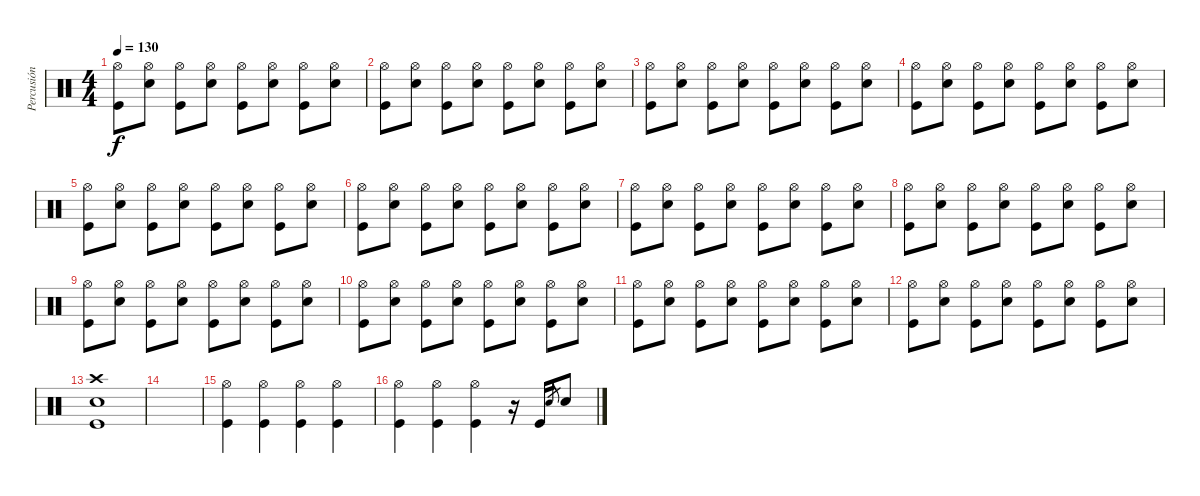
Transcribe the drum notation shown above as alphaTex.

\track ("Percusión" "Percusión") {instrument percussion}
\staff {score}
\articulation defaults
\ts (4 4)
\tempo 130
\clef neutral
\ks c
("Hi-Hat (open)" "Kick (hit)").8{dy f} ("Hi-Hat (open)" "Electric Snare (hit)").8 ("Hi-Hat (open)" "Kick (hit)").8 ("Hi-Hat (open)" "Electric Snare (hit)").8 ("Hi-Hat (open)" "Kick (hit)").8 ("Hi-Hat (open)" "Electric Snare (hit)").8 ("Hi-Hat (open)" "Kick (hit)").8 ("Hi-Hat (open)" "Electric Snare (hit)").8 |
("Hi-Hat (open)" "Kick (hit)").8 ("Hi-Hat (open)" "Electric Snare (hit)").8 ("Hi-Hat (open)" "Kick (hit)").8 ("Hi-Hat (open)" "Electric Snare (hit)").8 ("Hi-Hat (open)" "Kick (hit)").8 ("Hi-Hat (open)" "Electric Snare (hit)").8 ("Hi-Hat (open)" "Kick (hit)").8 ("Hi-Hat (open)" "Electric Snare (hit)").8 |
("Hi-Hat (open)" "Kick (hit)").8 ("Hi-Hat (open)" "Electric Snare (hit)").8 ("Hi-Hat (open)" "Kick (hit)").8 ("Hi-Hat (open)" "Electric Snare (hit)").8 ("Hi-Hat (open)" "Kick (hit)").8 ("Hi-Hat (open)" "Electric Snare (hit)").8 ("Hi-Hat (open)" "Kick (hit)").8 ("Hi-Hat (open)" "Electric Snare (hit)").8 |
("Hi-Hat (open)" "Kick (hit)").8 ("Hi-Hat (open)" "Electric Snare (hit)").8 ("Hi-Hat (open)" "Kick (hit)").8 ("Hi-Hat (open)" "Electric Snare (hit)").8 ("Hi-Hat (open)" "Kick (hit)").8 ("Hi-Hat (open)" "Electric Snare (hit)").8 ("Hi-Hat (open)" "Kick (hit)").8 ("Hi-Hat (open)" "Electric Snare (hit)").8 |
("Hi-Hat (open)" "Kick (hit)").8 ("Hi-Hat (open)" "Electric Snare (hit)").8 ("Hi-Hat (open)" "Kick (hit)").8 ("Hi-Hat (open)" "Electric Snare (hit)").8 ("Hi-Hat (open)" "Kick (hit)").8 ("Hi-Hat (open)" "Electric Snare (hit)").8 ("Hi-Hat (open)" "Kick (hit)").8 ("Hi-Hat (open)" "Electric Snare (hit)").8 |
("Hi-Hat (open)" "Kick (hit)").8 ("Hi-Hat (open)" "Electric Snare (hit)").8 ("Hi-Hat (open)" "Kick (hit)").8 ("Hi-Hat (open)" "Electric Snare (hit)").8 ("Hi-Hat (open)" "Kick (hit)").8 ("Hi-Hat (open)" "Electric Snare (hit)").8 ("Hi-Hat (open)" "Kick (hit)").8 ("Hi-Hat (open)" "Electric Snare (hit)").8 |
("Hi-Hat (open)" "Kick (hit)").8 ("Hi-Hat (open)" "Electric Snare (hit)").8 ("Hi-Hat (open)" "Kick (hit)").8 ("Hi-Hat (open)" "Electric Snare (hit)").8 ("Hi-Hat (open)" "Kick (hit)").8 ("Hi-Hat (open)" "Electric Snare (hit)").8 ("Hi-Hat (open)" "Kick (hit)").8 ("Hi-Hat (open)" "Electric Snare (hit)").8 |
("Hi-Hat (open)" "Kick (hit)").8 ("Hi-Hat (open)" "Electric Snare (hit)").8 ("Hi-Hat (open)" "Kick (hit)").8 ("Hi-Hat (open)" "Electric Snare (hit)").8 ("Hi-Hat (open)" "Kick (hit)").8 ("Hi-Hat (open)" "Electric Snare (hit)").8 ("Hi-Hat (open)" "Kick (hit)").8 ("Hi-Hat (open)" "Electric Snare (hit)").8 |
("Hi-Hat (open)" "Kick (hit)").8 ("Hi-Hat (open)" "Electric Snare (hit)").8 ("Hi-Hat (open)" "Kick (hit)").8 ("Hi-Hat (open)" "Electric Snare (hit)").8 ("Hi-Hat (open)" "Kick (hit)").8 ("Hi-Hat (open)" "Electric Snare (hit)").8 ("Hi-Hat (open)" "Kick (hit)").8 ("Hi-Hat (open)" "Electric Snare (hit)").8 |
("Hi-Hat (open)" "Kick (hit)").8 ("Hi-Hat (open)" "Electric Snare (hit)").8 ("Hi-Hat (open)" "Kick (hit)").8 ("Hi-Hat (open)" "Electric Snare (hit)").8 ("Hi-Hat (open)" "Kick (hit)").8 ("Hi-Hat (open)" "Electric Snare (hit)").8 ("Hi-Hat (open)" "Kick (hit)").8 ("Hi-Hat (open)" "Electric Snare (hit)").8 |
("Hi-Hat (open)" "Kick (hit)").8 ("Hi-Hat (open)" "Electric Snare (hit)").8 ("Hi-Hat (open)" "Kick (hit)").8 ("Hi-Hat (open)" "Electric Snare (hit)").8 ("Hi-Hat (open)" "Kick (hit)").8 ("Hi-Hat (open)" "Electric Snare (hit)").8 ("Hi-Hat (open)" "Kick (hit)").8 ("Hi-Hat (open)" "Electric Snare (hit)").8 |
("Hi-Hat (open)" "Kick (hit)").8 ("Hi-Hat (open)" "Electric Snare (hit)").8 ("Hi-Hat (open)" "Kick (hit)").8 ("Hi-Hat (open)" "Electric Snare (hit)").8 ("Hi-Hat (open)" "Kick (hit)").8 ("Hi-Hat (open)" "Electric Snare (hit)").8 ("Hi-Hat (open)" "Kick (hit)").8 ("Hi-Hat (open)" "Electric Snare (hit)").8 |
("Crash high (hit)" "Electric Snare (hit)" "Kick (hit)").1 |
|
("Hi-Hat (open)" "Kick (hit)").4 ("Hi-Hat (open)" "Kick (hit)").4 ("Hi-Hat (open)" "Kick (hit)").4 ("Hi-Hat (open)" "Kick (hit)").4 |
("Hi-Hat (open)" "Kick (hit)").4 ("Hi-Hat (open)" "Kick (hit)").4 ("Hi-Hat (open)" "Kick (hit)").4 r.16 "Kick (hit)".16 "Electric Snare (hit)".8{gr} "Electric Snare (hit)".8
